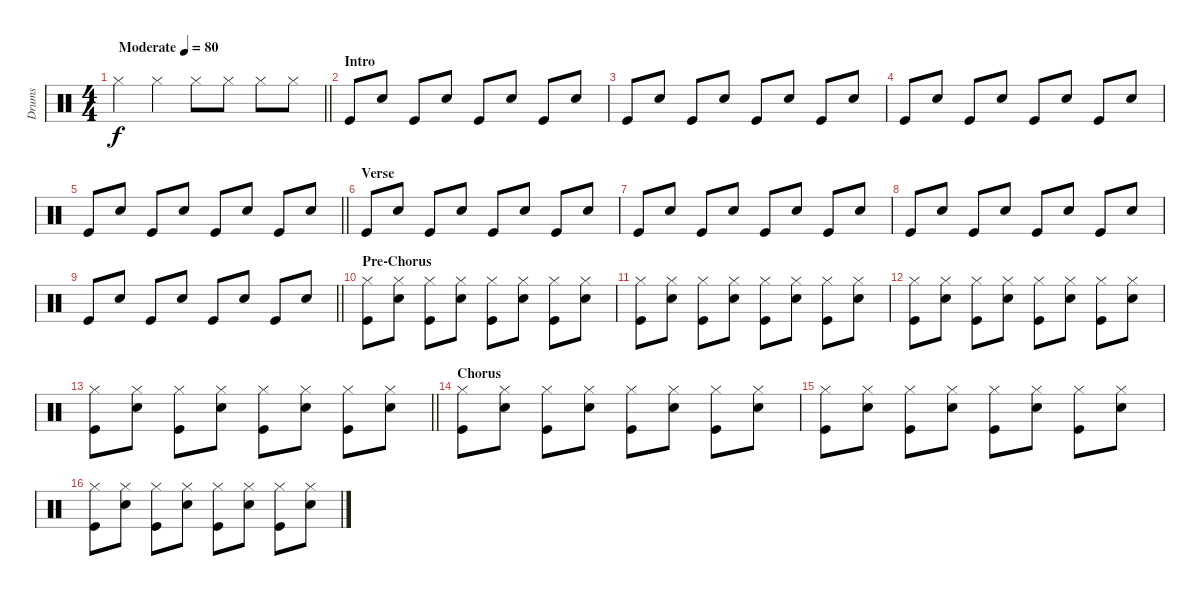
\track ("Drums" "Drums") {instrument percussion}
\staff {score}
\articulation defaults
\ts (4 4)
\tempo (80 "Moderate")
\clef neutral
\barLineRight lightlight
\ks c "Hi-Hat (closed)".4{dy f} "Hi-Hat (closed)".4 "Hi-Hat (closed)".8 "Hi-Hat (closed)".8 "Hi-Hat (closed)".8 "Hi-Hat (closed)".8
|
\section ("" "Intro")
"Kick (hit)".8 "Snare (hit) 2".8 "Kick (hit)".8 "Snare (hit) 2".8 "Kick (hit)".8 "Snare (hit) 2".8 "Kick (hit)".8 "Snare (hit) 2".8 |
"Kick (hit)".8 "Snare (hit) 2".8 "Kick (hit)".8 "Snare (hit) 2".8 "Kick (hit)".8 "Snare (hit) 2".8 "Kick (hit)".8 "Snare (hit) 2".8 |
"Kick (hit)".8 "Snare (hit) 2".8 "Kick (hit)".8 "Snare (hit) 2".8 "Kick (hit)".8 "Snare (hit) 2".8 "Kick (hit)".8 "Snare (hit) 2".8 |
\barLineRight lightlight "Kick (hit)".8 "Snare (hit) 2".8 "Kick (hit)".8 "Snare (hit) 2".8 "Kick (hit)".8 "Snare (hit) 2".8 "Kick (hit)".8 "Snare (hit) 2".8
|
\section ("" "Verse")
"Kick (hit)".8 "Snare (hit) 2".8 "Kick (hit)".8 "Snare (hit) 2".8 "Kick (hit)".8 "Snare (hit) 2".8 "Kick (hit)".8 "Snare (hit) 2".8 |
"Kick (hit)".8 "Snare (hit) 2".8 "Kick (hit)".8 "Snare (hit) 2".8 "Kick (hit)".8 "Snare (hit) 2".8 "Kick (hit)".8 "Snare (hit) 2".8 |
"Kick (hit)".8 "Snare (hit) 2".8 "Kick (hit)".8 "Snare (hit) 2".8 "Kick (hit)".8 "Snare (hit) 2".8 "Kick (hit)".8 "Snare (hit) 2".8 |
\barLineRight lightlight "Kick (hit)".8 "Snare (hit) 2".8 "Kick (hit)".8 "Snare (hit) 2".8 "Kick (hit)".8 "Snare (hit) 2".8 "Kick (hit)".8 "Snare (hit) 2".8
|
\section ("" "Pre-Chorus")
("Kick (hit)" "Hi-Hat (closed)").8 ("Snare (hit) 2" "Hi-Hat (closed)").8 ("Kick (hit)" "Hi-Hat (closed)").8 ("Snare (hit) 2" "Hi-Hat (closed)").8 ("Kick (hit)" "Hi-Hat (closed)").8 ("Snare (hit) 2" "Hi-Hat (closed)").8 ("Kick (hit)" "Hi-Hat (closed)").8 ("Snare (hit) 2" "Hi-Hat (closed)").8 |
("Kick (hit)" "Hi-Hat (closed)").8 ("Snare (hit) 2" "Hi-Hat (closed)").8 ("Kick (hit)" "Hi-Hat (closed)").8 ("Snare (hit) 2" "Hi-Hat (closed)").8 ("Kick (hit)" "Hi-Hat (closed)").8 ("Snare (hit) 2" "Hi-Hat (closed)").8 ("Kick (hit)" "Hi-Hat (closed)").8 ("Snare (hit) 2" "Hi-Hat (closed)").8 |
("Kick (hit)" "Hi-Hat (closed)").8 ("Snare (hit) 2" "Hi-Hat (closed)").8 ("Kick (hit)" "Hi-Hat (closed)").8 ("Snare (hit) 2" "Hi-Hat (closed)").8 ("Kick (hit)" "Hi-Hat (closed)").8 ("Snare (hit) 2" "Hi-Hat (closed)").8 ("Kick (hit)" "Hi-Hat (closed)").8 ("Snare (hit) 2" "Hi-Hat (closed)").8 |
\barLineRight lightlight
("Kick (hit)" "Hi-Hat (closed)").8 ("Snare (hit) 2" "Hi-Hat (closed)").8 ("Kick (hit)" "Hi-Hat (closed)").8 ("Snare (hit) 2" "Hi-Hat (closed)").8 ("Kick (hit)" "Hi-Hat (closed)").8 ("Snare (hit) 2" "Hi-Hat (closed)").8 ("Kick (hit)" "Hi-Hat (closed)").8 ("Snare (hit) 2" "Hi-Hat (closed)").8 |
\section ("" "Chorus")
("Kick (hit)" "Hi-Hat (closed)").8 ("Snare (hit) 2" "Hi-Hat (closed)").8 ("Kick (hit)" "Hi-Hat (closed)").8 ("Snare (hit) 2" "Hi-Hat (closed)").8 ("Kick (hit)" "Hi-Hat (closed)").8 ("Snare (hit) 2" "Hi-Hat (closed)").8 ("Kick (hit)" "Hi-Hat (closed)").8 ("Snare (hit) 2" "Hi-Hat (closed)").8 |
("Kick (hit)" "Hi-Hat (closed)").8 ("Snare (hit) 2" "Hi-Hat (closed)").8 ("Kick (hit)" "Hi-Hat (closed)").8 ("Snare (hit) 2" "Hi-Hat (closed)").8 ("Kick (hit)" "Hi-Hat (closed)").8 ("Snare (hit) 2" "Hi-Hat (closed)").8 ("Kick (hit)" "Hi-Hat (closed)").8 ("Snare (hit) 2" "Hi-Hat (closed)").8 |
("Kick (hit)" "Hi-Hat (closed)").8 ("Snare (hit) 2" "Hi-Hat (closed)").8 ("Kick (hit)" "Hi-Hat (closed)").8 ("Snare (hit) 2" "Hi-Hat (closed)").8 ("Kick (hit)" "Hi-Hat (closed)").8 ("Snare (hit) 2" "Hi-Hat (closed)").8 ("Kick (hit)" "Hi-Hat (closed)").8 ("Snare (hit) 2" "Hi-Hat (closed)").8
